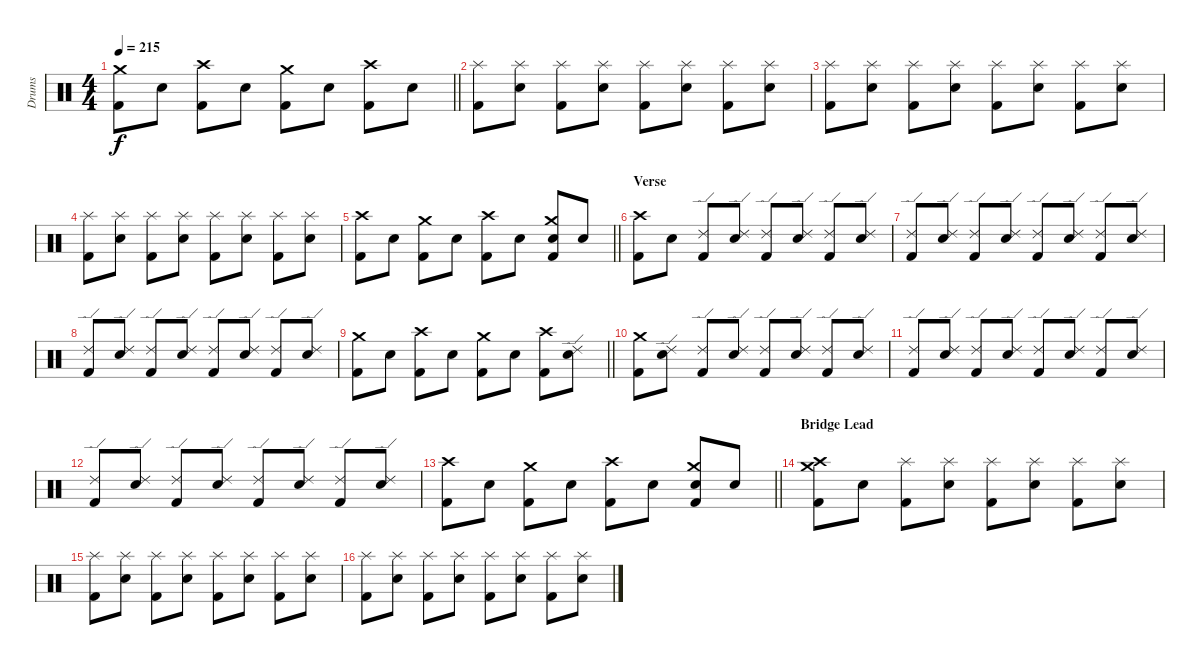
\track ("Drums" "Drums") {instrument percussion}
\staff {score}
\articulation defaults
\ts (4 4)
\tempo 215
\clef neutral
\barLineRight lightlight
\ks c
("Kick (hit) 2" "Crash medium (hit)").8{dy f} "Snare (hit) 2".8 ("Kick (hit) 2" "Crash high (hit)").8 "Snare (hit) 2".8 ("Kick (hit) 2" "Crash medium (hit)").8 "Snare (hit) 2".8 ("Kick (hit) 2" "Crash high (hit)").8 "Snare (hit) 2".8 |
\section ("" "")
("Kick (hit) 2" "Splash (hit)").8 ("Snare (hit) 2" "Splash (hit)").8 ("Kick (hit) 2" "Splash (hit)").8 ("Snare (hit) 2" "Splash (hit)").8 ("Kick (hit) 2" "Splash (hit)").8 ("Snare (hit) 2" "Splash (hit)").8 ("Kick (hit) 2" "Splash (hit)").8 ("Snare (hit) 2" "Splash (hit)").8 |
("Kick (hit) 2" "Splash (hit)").8 ("Snare (hit) 2" "Splash (hit)").8 ("Kick (hit) 2" "Splash (hit)").8 ("Snare (hit) 2" "Splash (hit)").8 ("Kick (hit) 2" "Splash (hit)").8 ("Snare (hit) 2" "Splash (hit)").8 ("Kick (hit) 2" "Splash (hit)").8 ("Snare (hit) 2" "Splash (hit)").8 |
("Kick (hit) 2" "Splash (hit)").8 ("Snare (hit) 2" "Splash (hit)").8 ("Kick (hit) 2" "Splash (hit)").8 ("Snare (hit) 2" "Splash (hit)").8 ("Kick (hit) 2" "Splash (hit)").8 ("Snare (hit) 2" "Splash (hit)").8 ("Kick (hit) 2" "Splash (hit)").8 ("Snare (hit) 2" "Splash (hit)").8 |
\barLineRight lightlight
("Kick (hit) 2" "Crash high (hit)").8 "Snare (hit) 2".8 ("Kick (hit) 2" "Crash medium (hit)").8 "Snare (hit) 2".8 ("Kick (hit) 2" "Crash high (hit)").8 "Snare (hit) 2".8 ("Kick (hit) 2" "Snare (hit) 2" "Crash medium (hit)").8 "Snare (hit) 2".8 |
\section ("" "Verse")
("Kick (hit) 2" "Crash high (hit)").8 "Snare (hit) 2".8 ("Kick (hit) 2" "Ride (edge) 2").8 ("Snare (hit) 2" "Ride (edge) 2").8 ("Kick (hit) 2" "Ride (edge) 2").8 ("Snare (hit) 2" "Ride (edge) 2").8 ("Kick (hit) 2" "Ride (edge) 2").8 ("Snare (hit) 2" "Ride (edge) 2").8 |
("Kick (hit) 2" "Ride (edge) 2").8 ("Snare (hit) 2" "Ride (edge) 2").8 ("Kick (hit) 2" "Ride (edge) 2").8 ("Snare (hit) 2" "Ride (edge) 2").8 ("Kick (hit) 2" "Ride (edge) 2").8 ("Snare (hit) 2" "Ride (edge) 2").8 ("Kick (hit) 2" "Ride (edge) 2").8 ("Snare (hit) 2" "Ride (edge) 2").8 |
("Kick (hit) 2" "Ride (edge) 2").8 ("Snare (hit) 2" "Ride (edge) 2").8 ("Kick (hit) 2" "Ride (edge) 2").8 ("Snare (hit) 2" "Ride (edge) 2").8 ("Kick (hit) 2" "Ride (edge) 2").8 ("Snare (hit) 2" "Ride (edge) 2").8 ("Kick (hit) 2" "Ride (edge) 2").8 ("Snare (hit) 2" "Ride (edge) 2").8 |
\barLineRight lightlight
("Kick (hit) 2" "Crash medium (hit)").8 "Snare (hit) 2".8 ("Kick (hit) 2" "Crash high (hit)").8 "Snare (hit) 2".8 ("Kick (hit) 2" "Crash medium (hit)").8 "Snare (hit) 2".8 ("Kick (hit) 2" "Crash high (hit)").8 ("Snare (hit) 2" "Ride (edge) 2").8 |
\section ("" "")
("Kick (hit) 2" "Crash medium (hit)").8 ("Snare (hit) 2" "Ride (edge) 2").8 ("Kick (hit) 2" "Ride (edge) 2").8 ("Snare (hit) 2" "Ride (edge) 2").8 ("Kick (hit) 2" "Ride (edge) 2").8 ("Snare (hit) 2" "Ride (edge) 2").8 ("Kick (hit) 2" "Ride (edge) 2").8 ("Snare (hit) 2" "Ride (edge) 2").8 |
("Kick (hit) 2" "Ride (edge) 2").8 ("Snare (hit) 2" "Ride (edge) 2").8 ("Kick (hit) 2" "Ride (edge) 2").8 ("Snare (hit) 2" "Ride (edge) 2").8 ("Kick (hit) 2" "Ride (edge) 2").8 ("Snare (hit) 2" "Ride (edge) 2").8 ("Kick (hit) 2" "Ride (edge) 2").8 ("Snare (hit) 2" "Ride (edge) 2").8 |
("Kick (hit) 2" "Ride (edge) 2").8 ("Snare (hit) 2" "Ride (edge) 2").8 ("Kick (hit) 2" "Ride (edge) 2").8 ("Snare (hit) 2" "Ride (edge) 2").8 ("Kick (hit) 2" "Ride (edge) 2").8 ("Snare (hit) 2" "Ride (edge) 2").8 ("Kick (hit) 2" "Ride (edge) 2").8 ("Snare (hit) 2" "Ride (edge) 2").8 |
\barLineRight lightlight
("Kick (hit) 2" "Crash high (hit)").8 "Snare (hit) 2".8 ("Kick (hit) 2" "Crash medium (hit)").8 "Snare (hit) 2".8 ("Kick (hit) 2" "Crash high (hit)").8 "Snare (hit) 2".8 ("Kick (hit) 2" "Snare (hit) 2" "Crash medium (hit)").8 "Snare (hit) 2".8 |
\section ("" "Bridge Lead")
("Kick (hit) 2" "Crash medium (hit)" "Crash high (hit)").8 "Snare (hit) 2".8 ("Kick (hit) 2" "Splash (hit)").8 ("Snare (hit) 2" "Splash (hit)").8 ("Kick (hit) 2" "Splash (hit)").8 ("Snare (hit) 2" "Splash (hit)").8 ("Kick (hit) 2" "Splash (hit)").8 ("Snare (hit) 2" "Splash (hit)").8 |
("Kick (hit) 2" "Splash (hit)").8 ("Snare (hit) 2" "Splash (hit)").8 ("Kick (hit) 2" "Splash (hit)").8 ("Snare (hit) 2" "Splash (hit)").8 ("Kick (hit) 2" "Splash (hit)").8 ("Snare (hit) 2" "Splash (hit)").8 ("Kick (hit) 2" "Splash (hit)").8 ("Snare (hit) 2" "Splash (hit)").8 |
("Kick (hit) 2" "Splash (hit)").8 ("Snare (hit) 2" "Splash (hit)").8 ("Kick (hit) 2" "Splash (hit)").8 ("Snare (hit) 2" "Splash (hit)").8 ("Kick (hit) 2" "Splash (hit)").8 ("Snare (hit) 2" "Splash (hit)").8 ("Kick (hit) 2" "Splash (hit)").8 ("Snare (hit) 2" "Splash (hit)").8
